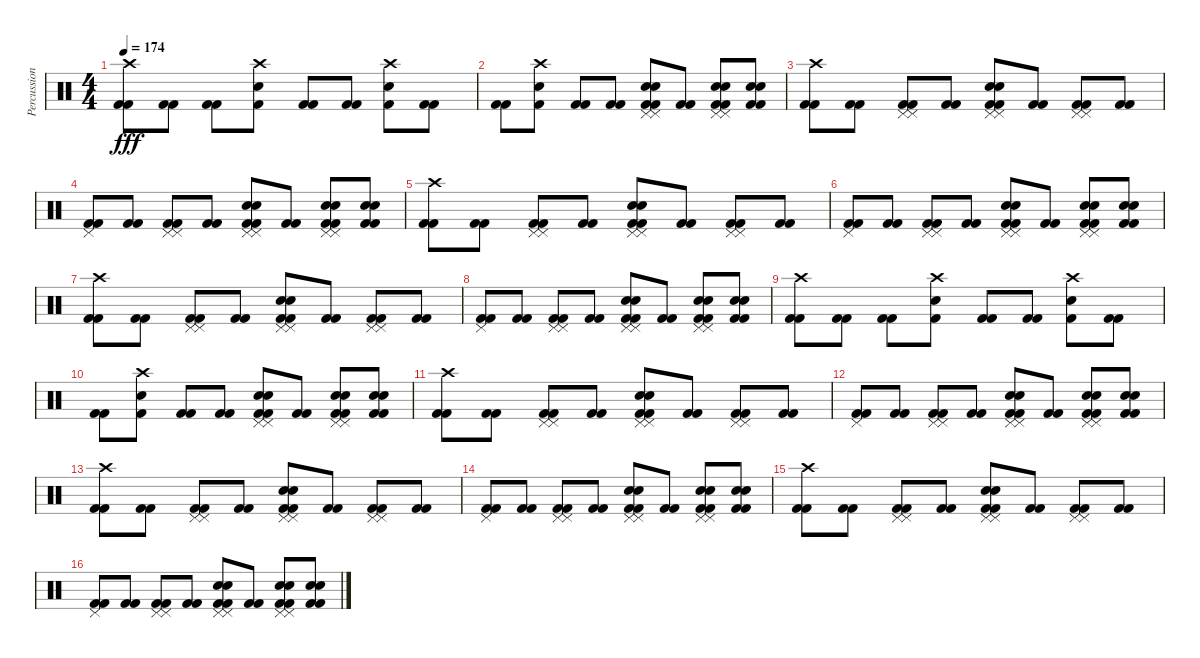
\track ("Percussion" "Percussion") {instrument percussion}
\staff {score}
\articulation defaults
\ts (4 4)
\tempo 174
\clef neutral
\ks c
("Crash high (hit)" "Kick (hit) 2" "Kick (hit) 2").8{dy fff} ("Kick (hit) 2" "Kick (hit) 2").8 ("Kick (hit) 2" "Kick (hit) 2").8 ("Crash high (hit)" "Electric Snare (hit)" "Kick (hit) 2").8 ("Kick (hit) 2" "Kick (hit) 2").8 ("Kick (hit) 2" "Kick (hit) 2").8 ("Crash high (hit)" "Electric Snare (hit)" "Kick (hit) 2").8 ("Kick (hit) 2" "Kick (hit) 2").8 |
("Kick (hit) 2" "Kick (hit) 2").8 ("Crash high (hit)" "Electric Snare (hit)" "Kick (hit) 2").8 ("Kick (hit) 2" "Kick (hit) 2").8 ("Kick (hit) 2" "Kick (hit) 2").8 ("Pedal Hi-Hat (hit)" "Pedal Hi-Hat (hit)" "Electric Snare (hit)" "Electric Snare (hit)" "Kick (hit) 2" "Kick (hit) 2").8 ("Kick (hit) 2" "Kick (hit) 2").8 ("Pedal Hi-Hat (hit)" "Pedal Hi-Hat (hit)" "Electric Snare (hit)" "Electric Snare (hit)" "Kick (hit) 2" "Kick (hit) 2").8 ("Electric Snare (hit)" "Electric Snare (hit)" "Kick (hit) 2" "Kick (hit) 2").8 |
("Crash high (hit)" "Kick (hit) 2" "Kick (hit) 2").8 ("Kick (hit) 2" "Kick (hit) 2").8 ("Pedal Hi-Hat (hit)" "Pedal Hi-Hat (hit)" "Kick (hit) 2" "Kick (hit) 2").8 ("Kick (hit) 2" "Kick (hit) 2").8 ("Pedal Hi-Hat (hit)" "Pedal Hi-Hat (hit)" "Electric Snare (hit)" "Electric Snare (hit)" "Kick (hit) 2" "Kick (hit) 2").8 ("Kick (hit) 2" "Kick (hit) 2").8 ("Pedal Hi-Hat (hit)" "Pedal Hi-Hat (hit)" "Kick (hit) 2" "Kick (hit) 2").8 ("Kick (hit) 2" "Kick (hit) 2").8 |
("Pedal Hi-Hat (hit)" "Kick (hit) 2" "Kick (hit) 2").8 ("Kick (hit) 2" "Kick (hit) 2").8 ("Pedal Hi-Hat (hit)" "Pedal Hi-Hat (hit)" "Kick (hit) 2" "Kick (hit) 2").8 ("Kick (hit) 2" "Kick (hit) 2").8 ("Pedal Hi-Hat (hit)" "Pedal Hi-Hat (hit)" "Electric Snare (hit)" "Electric Snare (hit)" "Kick (hit) 2" "Kick (hit) 2").8 ("Kick (hit) 2" "Kick (hit) 2").8 ("Pedal Hi-Hat (hit)" "Pedal Hi-Hat (hit)" "Electric Snare (hit)" "Electric Snare (hit)" "Kick (hit) 2" "Kick (hit) 2").8 ("Electric Snare (hit)" "Electric Snare (hit)" "Kick (hit) 2" "Kick (hit) 2").8 |
("Crash high (hit)" "Kick (hit) 2" "Kick (hit) 2").8 ("Kick (hit) 2" "Kick (hit) 2").8 ("Pedal Hi-Hat (hit)" "Pedal Hi-Hat (hit)" "Kick (hit) 2" "Kick (hit) 2").8 ("Kick (hit) 2" "Kick (hit) 2").8 ("Pedal Hi-Hat (hit)" "Pedal Hi-Hat (hit)" "Electric Snare (hit)" "Electric Snare (hit)" "Kick (hit) 2" "Kick (hit) 2").8 ("Kick (hit) 2" "Kick (hit) 2").8 ("Pedal Hi-Hat (hit)" "Pedal Hi-Hat (hit)" "Kick (hit) 2" "Kick (hit) 2").8 ("Kick (hit) 2" "Kick (hit) 2").8 |
("Pedal Hi-Hat (hit)" "Kick (hit) 2" "Kick (hit) 2").8 ("Kick (hit) 2" "Kick (hit) 2").8 ("Pedal Hi-Hat (hit)" "Pedal Hi-Hat (hit)" "Kick (hit) 2" "Kick (hit) 2").8 ("Kick (hit) 2" "Kick (hit) 2").8 ("Pedal Hi-Hat (hit)" "Pedal Hi-Hat (hit)" "Electric Snare (hit)" "Electric Snare (hit)" "Kick (hit) 2" "Kick (hit) 2").8 ("Kick (hit) 2" "Kick (hit) 2").8 ("Pedal Hi-Hat (hit)" "Pedal Hi-Hat (hit)" "Electric Snare (hit)" "Electric Snare (hit)" "Kick (hit) 2" "Kick (hit) 2").8 ("Electric Snare (hit)" "Electric Snare (hit)" "Kick (hit) 2" "Kick (hit) 2").8 |
("Crash high (hit)" "Kick (hit) 2" "Kick (hit) 2").8 ("Kick (hit) 2" "Kick (hit) 2").8 ("Pedal Hi-Hat (hit)" "Pedal Hi-Hat (hit)" "Kick (hit) 2" "Kick (hit) 2").8 ("Kick (hit) 2" "Kick (hit) 2").8 ("Pedal Hi-Hat (hit)" "Pedal Hi-Hat (hit)" "Electric Snare (hit)" "Electric Snare (hit)" "Kick (hit) 2" "Kick (hit) 2").8 ("Kick (hit) 2" "Kick (hit) 2").8 ("Pedal Hi-Hat (hit)" "Pedal Hi-Hat (hit)" "Kick (hit) 2" "Kick (hit) 2").8 ("Kick (hit) 2" "Kick (hit) 2").8 |
("Pedal Hi-Hat (hit)" "Kick (hit) 2" "Kick (hit) 2").8 ("Kick (hit) 2" "Kick (hit) 2").8 ("Pedal Hi-Hat (hit)" "Pedal Hi-Hat (hit)" "Kick (hit) 2" "Kick (hit) 2").8 ("Kick (hit) 2" "Kick (hit) 2").8 ("Pedal Hi-Hat (hit)" "Pedal Hi-Hat (hit)" "Electric Snare (hit)" "Electric Snare (hit)" "Kick (hit) 2" "Kick (hit) 2").8 ("Kick (hit) 2" "Kick (hit) 2").8 ("Pedal Hi-Hat (hit)" "Pedal Hi-Hat (hit)" "Electric Snare (hit)" "Electric Snare (hit)" "Kick (hit) 2" "Kick (hit) 2").8 ("Electric Snare (hit)" "Electric Snare (hit)" "Kick (hit) 2" "Kick (hit) 2").8 |
("Crash high (hit)" "Kick (hit) 2" "Kick (hit) 2").8 ("Kick (hit) 2" "Kick (hit) 2").8 ("Kick (hit) 2" "Kick (hit) 2").8 ("Crash high (hit)" "Electric Snare (hit)" "Kick (hit) 2").8 ("Kick (hit) 2" "Kick (hit) 2").8 ("Kick (hit) 2" "Kick (hit) 2").8 ("Crash high (hit)" "Electric Snare (hit)" "Kick (hit) 2").8 ("Kick (hit) 2" "Kick (hit) 2").8 |
("Kick (hit) 2" "Kick (hit) 2").8 ("Crash high (hit)" "Electric Snare (hit)" "Kick (hit) 2").8 ("Kick (hit) 2" "Kick (hit) 2").8 ("Kick (hit) 2" "Kick (hit) 2").8 ("Pedal Hi-Hat (hit)" "Pedal Hi-Hat (hit)" "Electric Snare (hit)" "Electric Snare (hit)" "Kick (hit) 2" "Kick (hit) 2").8 ("Kick (hit) 2" "Kick (hit) 2").8 ("Pedal Hi-Hat (hit)" "Pedal Hi-Hat (hit)" "Electric Snare (hit)" "Electric Snare (hit)" "Kick (hit) 2" "Kick (hit) 2").8 ("Electric Snare (hit)" "Electric Snare (hit)" "Kick (hit) 2" "Kick (hit) 2").8 |
("Crash high (hit)" "Kick (hit) 2" "Kick (hit) 2").8 ("Kick (hit) 2" "Kick (hit) 2").8 ("Pedal Hi-Hat (hit)" "Pedal Hi-Hat (hit)" "Kick (hit) 2" "Kick (hit) 2").8 ("Kick (hit) 2" "Kick (hit) 2").8 ("Pedal Hi-Hat (hit)" "Pedal Hi-Hat (hit)" "Electric Snare (hit)" "Electric Snare (hit)" "Kick (hit) 2" "Kick (hit) 2").8 ("Kick (hit) 2" "Kick (hit) 2").8 ("Pedal Hi-Hat (hit)" "Pedal Hi-Hat (hit)" "Kick (hit) 2" "Kick (hit) 2").8 ("Kick (hit) 2" "Kick (hit) 2").8 |
("Pedal Hi-Hat (hit)" "Kick (hit) 2" "Kick (hit) 2").8 ("Kick (hit) 2" "Kick (hit) 2").8 ("Pedal Hi-Hat (hit)" "Pedal Hi-Hat (hit)" "Kick (hit) 2" "Kick (hit) 2").8 ("Kick (hit) 2" "Kick (hit) 2").8 ("Pedal Hi-Hat (hit)" "Pedal Hi-Hat (hit)" "Electric Snare (hit)" "Electric Snare (hit)" "Kick (hit) 2" "Kick (hit) 2").8 ("Kick (hit) 2" "Kick (hit) 2").8 ("Pedal Hi-Hat (hit)" "Pedal Hi-Hat (hit)" "Electric Snare (hit)" "Electric Snare (hit)" "Kick (hit) 2" "Kick (hit) 2").8 ("Electric Snare (hit)" "Electric Snare (hit)" "Kick (hit) 2" "Kick (hit) 2").8 |
("Crash high (hit)" "Kick (hit) 2" "Kick (hit) 2").8 ("Kick (hit) 2" "Kick (hit) 2").8 ("Pedal Hi-Hat (hit)" "Pedal Hi-Hat (hit)" "Kick (hit) 2" "Kick (hit) 2").8 ("Kick (hit) 2" "Kick (hit) 2").8 ("Pedal Hi-Hat (hit)" "Pedal Hi-Hat (hit)" "Electric Snare (hit)" "Electric Snare (hit)" "Kick (hit) 2" "Kick (hit) 2").8 ("Kick (hit) 2" "Kick (hit) 2").8 ("Pedal Hi-Hat (hit)" "Pedal Hi-Hat (hit)" "Kick (hit) 2" "Kick (hit) 2").8 ("Kick (hit) 2" "Kick (hit) 2").8 |
("Pedal Hi-Hat (hit)" "Kick (hit) 2" "Kick (hit) 2").8 ("Kick (hit) 2" "Kick (hit) 2").8 ("Pedal Hi-Hat (hit)" "Pedal Hi-Hat (hit)" "Kick (hit) 2" "Kick (hit) 2").8 ("Kick (hit) 2" "Kick (hit) 2").8 ("Pedal Hi-Hat (hit)" "Pedal Hi-Hat (hit)" "Electric Snare (hit)" "Electric Snare (hit)" "Kick (hit) 2" "Kick (hit) 2").8 ("Kick (hit) 2" "Kick (hit) 2").8 ("Pedal Hi-Hat (hit)" "Pedal Hi-Hat (hit)" "Electric Snare (hit)" "Electric Snare (hit)" "Kick (hit) 2" "Kick (hit) 2").8 ("Electric Snare (hit)" "Electric Snare (hit)" "Kick (hit) 2" "Kick (hit) 2").8 |
("Crash high (hit)" "Kick (hit) 2" "Kick (hit) 2").8 ("Kick (hit) 2" "Kick (hit) 2").8 ("Pedal Hi-Hat (hit)" "Pedal Hi-Hat (hit)" "Kick (hit) 2" "Kick (hit) 2").8 ("Kick (hit) 2" "Kick (hit) 2").8 ("Pedal Hi-Hat (hit)" "Pedal Hi-Hat (hit)" "Electric Snare (hit)" "Electric Snare (hit)" "Kick (hit) 2" "Kick (hit) 2").8 ("Kick (hit) 2" "Kick (hit) 2").8 ("Pedal Hi-Hat (hit)" "Pedal Hi-Hat (hit)" "Kick (hit) 2" "Kick (hit) 2").8 ("Kick (hit) 2" "Kick (hit) 2").8 |
("Pedal Hi-Hat (hit)" "Kick (hit) 2" "Kick (hit) 2").8 ("Kick (hit) 2" "Kick (hit) 2").8 ("Pedal Hi-Hat (hit)" "Pedal Hi-Hat (hit)" "Kick (hit) 2" "Kick (hit) 2").8 ("Kick (hit) 2" "Kick (hit) 2").8 ("Pedal Hi-Hat (hit)" "Pedal Hi-Hat (hit)" "Electric Snare (hit)" "Electric Snare (hit)" "Kick (hit) 2" "Kick (hit) 2").8 ("Kick (hit) 2" "Kick (hit) 2").8 ("Pedal Hi-Hat (hit)" "Pedal Hi-Hat (hit)" "Electric Snare (hit)" "Electric Snare (hit)" "Kick (hit) 2" "Kick (hit) 2").8 ("Electric Snare (hit)" "Electric Snare (hit)" "Kick (hit) 2" "Kick (hit) 2").8
